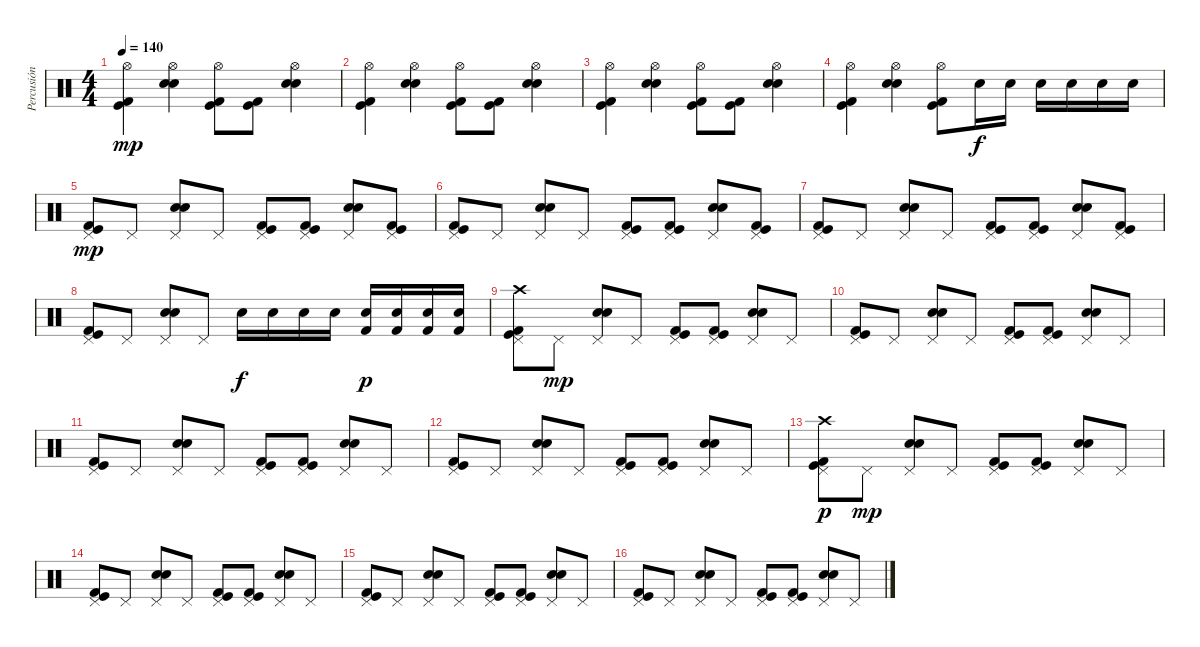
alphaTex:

\track ("Percusión" "Percusión") {instrument percussion}
\staff {score}
\articulation defaults
\ts (4 4)
\tempo 140
\clef neutral
\ks c
("Kick (hit)" "Kick (hit) 2" "Hi-Hat (open)").4{dy mp} ("Electric Snare (hit)" "Snare (hit) 2" "Hi-Hat (open)").4 ("Kick (hit)" "Kick (hit) 2" "Hi-Hat (open)").8 ("Kick (hit)" "Kick (hit) 2").8 ("Snare (hit) 2" "Electric Snare (hit)" "Hi-Hat (open)").4 |
("Kick (hit)" "Kick (hit) 2" "Hi-Hat (open)").4 ("Electric Snare (hit)" "Snare (hit) 2" "Hi-Hat (open)").4 ("Kick (hit)" "Kick (hit) 2" "Hi-Hat (open)").8 ("Kick (hit)" "Kick (hit) 2").8 ("Snare (hit) 2" "Electric Snare (hit)" "Hi-Hat (open)").4 |
("Kick (hit)" "Kick (hit) 2" "Hi-Hat (open)").4 ("Electric Snare (hit)" "Snare (hit) 2" "Hi-Hat (open)").4 ("Kick (hit)" "Kick (hit) 2" "Hi-Hat (open)").8 ("Kick (hit)" "Kick (hit) 2").8 ("Snare (hit) 2" "Electric Snare (hit)" "Hi-Hat (open)").4 |
("Kick (hit)" "Kick (hit) 2" "Hi-Hat (open)").4 ("Electric Snare (hit)" "Snare (hit) 2" "Hi-Hat (open)").4 ("Kick (hit)" "Kick (hit) 2" "Hi-Hat (open)").8 "Electric Snare (hit)".16{dy f} "Electric Snare (hit)".16 "Electric Snare (hit)".16 "Electric Snare (hit)".16 "Electric Snare (hit)".16 "Electric Snare (hit)".16 |
("Kick (hit)" "Kick (hit) 2" "Pedal Hi-Hat (hit)").8{dy mp} "Pedal Hi-Hat (hit)".8 ("Electric Snare (hit)" "Snare (hit) 2" "Pedal Hi-Hat (hit)").8 "Pedal Hi-Hat (hit)".8 ("Kick (hit)" "Kick (hit) 2" "Pedal Hi-Hat (hit)").8 ("Kick (hit)" "Kick (hit) 2" "Pedal Hi-Hat (hit)").8 ("Snare (hit) 2" "Electric Snare (hit)" "Pedal Hi-Hat (hit)").8 ("Kick (hit)" "Kick (hit) 2" "Pedal Hi-Hat (hit)").8 |
("Kick (hit)" "Kick (hit) 2" "Pedal Hi-Hat (hit)").8 "Pedal Hi-Hat (hit)".8 ("Electric Snare (hit)" "Snare (hit) 2" "Pedal Hi-Hat (hit)").8 "Pedal Hi-Hat (hit)".8 ("Kick (hit)" "Kick (hit) 2" "Pedal Hi-Hat (hit)").8 ("Kick (hit)" "Kick (hit) 2" "Pedal Hi-Hat (hit)").8 ("Snare (hit) 2" "Electric Snare (hit)" "Pedal Hi-Hat (hit)").8 ("Kick (hit)" "Kick (hit) 2" "Pedal Hi-Hat (hit)").8 |
("Kick (hit)" "Kick (hit) 2" "Pedal Hi-Hat (hit)").8 "Pedal Hi-Hat (hit)".8 ("Electric Snare (hit)" "Snare (hit) 2" "Pedal Hi-Hat (hit)").8 "Pedal Hi-Hat (hit)".8 ("Kick (hit)" "Kick (hit) 2" "Pedal Hi-Hat (hit)").8 ("Kick (hit)" "Kick (hit) 2" "Pedal Hi-Hat (hit)").8 ("Snare (hit) 2" "Electric Snare (hit)" "Pedal Hi-Hat (hit)").8 ("Kick (hit)" "Kick (hit) 2" "Pedal Hi-Hat (hit)").8 |
("Kick (hit)" "Kick (hit) 2" "Pedal Hi-Hat (hit)").8 "Pedal Hi-Hat (hit)".8 ("Electric Snare (hit)" "Snare (hit) 2" "Pedal Hi-Hat (hit)").8 "Pedal Hi-Hat (hit)".8 "Electric Snare (hit)".16{dy f} "Electric Snare (hit)".16 "Electric Snare (hit)".16 "Electric Snare (hit)".16 ("Electric Snare (hit)" "Kick (hit) 2").16{dy p} ("Electric Snare (hit)" "Kick (hit) 2").16 ("Electric Snare (hit)" "Kick (hit) 2").16 ("Electric Snare (hit)" "Kick (hit) 2").16 |
("Kick (hit)" "Kick (hit) 2" "Pedal Hi-Hat (hit)" "Crash high (hit)").8 "Pedal Hi-Hat (hit)".8{dy mp} ("Electric Snare (hit)" "Snare (hit) 2" "Pedal Hi-Hat (hit)").8 "Pedal Hi-Hat (hit)".8 ("Kick (hit)" "Kick (hit) 2" "Pedal Hi-Hat (hit)").8 ("Kick (hit)" "Kick (hit) 2" "Pedal Hi-Hat (hit)").8 ("Snare (hit) 2" "Electric Snare (hit)" "Pedal Hi-Hat (hit)").8 "Pedal Hi-Hat (hit)".8 |
("Kick (hit)" "Kick (hit) 2" "Pedal Hi-Hat (hit)").8 "Pedal Hi-Hat (hit)".8 ("Electric Snare (hit)" "Snare (hit) 2" "Pedal Hi-Hat (hit)").8 "Pedal Hi-Hat (hit)".8 ("Kick (hit)" "Kick (hit) 2" "Pedal Hi-Hat (hit)").8 ("Kick (hit)" "Kick (hit) 2" "Pedal Hi-Hat (hit)").8 ("Snare (hit) 2" "Electric Snare (hit)" "Pedal Hi-Hat (hit)").8 "Pedal Hi-Hat (hit)".8 |
("Kick (hit)" "Kick (hit) 2" "Pedal Hi-Hat (hit)").8 "Pedal Hi-Hat (hit)".8 ("Electric Snare (hit)" "Snare (hit) 2" "Pedal Hi-Hat (hit)").8 "Pedal Hi-Hat (hit)".8 ("Kick (hit)" "Kick (hit) 2" "Pedal Hi-Hat (hit)").8 ("Kick (hit)" "Kick (hit) 2" "Pedal Hi-Hat (hit)").8 ("Snare (hit) 2" "Electric Snare (hit)" "Pedal Hi-Hat (hit)").8 "Pedal Hi-Hat (hit)".8 |
("Kick (hit)" "Kick (hit) 2" "Pedal Hi-Hat (hit)").8 "Pedal Hi-Hat (hit)".8 ("Electric Snare (hit)" "Snare (hit) 2" "Pedal Hi-Hat (hit)").8 "Pedal Hi-Hat (hit)".8 ("Kick (hit)" "Kick (hit) 2" "Pedal Hi-Hat (hit)").8 ("Kick (hit)" "Kick (hit) 2" "Pedal Hi-Hat (hit)").8 ("Snare (hit) 2" "Electric Snare (hit)" "Pedal Hi-Hat (hit)").8 "Pedal Hi-Hat (hit)".8 |
("Kick (hit)" "Kick (hit) 2" "Pedal Hi-Hat (hit)" "Crash high (hit)").8{dy p} "Pedal Hi-Hat (hit)".8{dy mp} ("Electric Snare (hit)" "Snare (hit) 2" "Pedal Hi-Hat (hit)").8 "Pedal Hi-Hat (hit)".8 ("Kick (hit)" "Kick (hit) 2" "Pedal Hi-Hat (hit)").8 ("Kick (hit)" "Kick (hit) 2" "Pedal Hi-Hat (hit)").8 ("Snare (hit) 2" "Electric Snare (hit)" "Pedal Hi-Hat (hit)").8 "Pedal Hi-Hat (hit)".8 |
("Kick (hit)" "Kick (hit) 2" "Pedal Hi-Hat (hit)").8 "Pedal Hi-Hat (hit)".8 ("Electric Snare (hit)" "Snare (hit) 2" "Pedal Hi-Hat (hit)").8 "Pedal Hi-Hat (hit)".8 ("Kick (hit)" "Kick (hit) 2" "Pedal Hi-Hat (hit)").8 ("Kick (hit)" "Kick (hit) 2" "Pedal Hi-Hat (hit)").8 ("Snare (hit) 2" "Electric Snare (hit)" "Pedal Hi-Hat (hit)").8 "Pedal Hi-Hat (hit)".8 |
("Kick (hit)" "Kick (hit) 2" "Pedal Hi-Hat (hit)").8 "Pedal Hi-Hat (hit)".8 ("Electric Snare (hit)" "Snare (hit) 2" "Pedal Hi-Hat (hit)").8 "Pedal Hi-Hat (hit)".8 ("Kick (hit)" "Kick (hit) 2" "Pedal Hi-Hat (hit)").8 ("Kick (hit)" "Kick (hit) 2" "Pedal Hi-Hat (hit)").8 ("Snare (hit) 2" "Electric Snare (hit)" "Pedal Hi-Hat (hit)").8 "Pedal Hi-Hat (hit)".8 |
("Kick (hit)" "Kick (hit) 2" "Pedal Hi-Hat (hit)").8 "Pedal Hi-Hat (hit)".8 ("Electric Snare (hit)" "Snare (hit) 2" "Pedal Hi-Hat (hit)").8 "Pedal Hi-Hat (hit)".8 ("Kick (hit)" "Kick (hit) 2" "Pedal Hi-Hat (hit)").8 ("Kick (hit)" "Kick (hit) 2" "Pedal Hi-Hat (hit)").8 ("Snare (hit) 2" "Electric Snare (hit)" "Pedal Hi-Hat (hit)").8 "Pedal Hi-Hat (hit)".8
